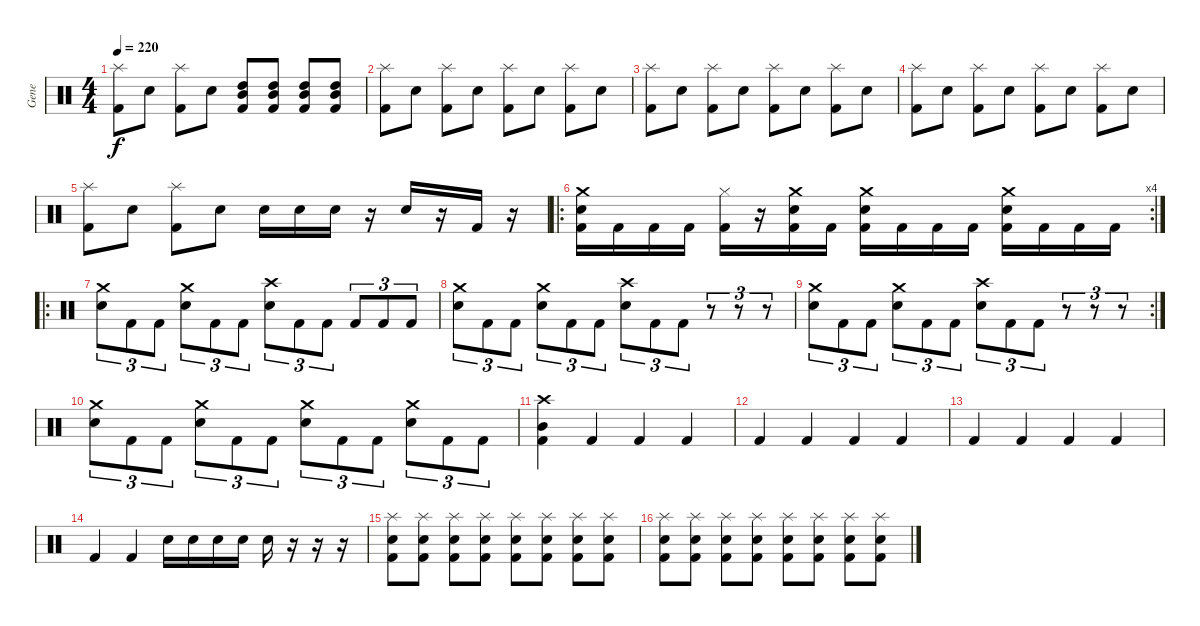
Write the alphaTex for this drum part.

\track ("Gene" "Gene") {instrument percussion}
\staff {score}
\articulation defaults
\ts (4 4)
\tempo 220
\clef neutral
\ks c
("Splash (hit)" "Kick (hit) 2").8{dy f} "Electric Snare (hit)".8 ("Splash (hit)" "Kick (hit) 2").8 "Electric Snare (hit)".8 ("High Tom (hit)" "Mid Tom (hit)" "Kick (hit) 2").8 ("High Tom (hit)" "Mid Tom (hit)" "Kick (hit) 2").8 ("High Tom (hit)" "Mid Tom (hit)" "Kick (hit) 2").8 ("High Tom (hit)" "Mid Tom (hit)" "Kick (hit) 2").8 |
("Splash (hit)" "Kick (hit) 2").8 "Electric Snare (hit)".8 ("Splash (hit)" "Kick (hit) 2").8 "Electric Snare (hit)".8 ("Splash (hit)" "Kick (hit) 2").8 "Electric Snare (hit)".8 ("Splash (hit)" "Kick (hit) 2").8 "Electric Snare (hit)".8 |
("Splash (hit)" "Kick (hit) 2").8 "Electric Snare (hit)".8 ("Splash (hit)" "Kick (hit) 2").8 "Electric Snare (hit)".8 ("Splash (hit)" "Kick (hit) 2").8 "Electric Snare (hit)".8 ("Splash (hit)" "Kick (hit) 2").8 "Electric Snare (hit)".8 |
("Splash (hit)" "Kick (hit) 2").8 "Electric Snare (hit)".8 ("Splash (hit)" "Kick (hit) 2").8 "Electric Snare (hit)".8 ("Splash (hit)" "Kick (hit) 2").8 "Electric Snare (hit)".8 ("Splash (hit)" "Kick (hit) 2").8 "Electric Snare (hit)".8 |
("Splash (hit)" "Kick (hit) 2").8 "Electric Snare (hit)".8 ("Splash (hit)" "Kick (hit) 2").8 "Electric Snare (hit)".8 "Electric Snare (hit)".16 "Electric Snare (hit)".16 "Electric Snare (hit)".16 r.16 "Electric Snare (hit)".16 r.16 "Kick (hit) 2".16 r.16 |
\ro
\rc 4
("Crash medium (hit)" "Electric Snare (hit)" "Kick (hit) 2").16 "Kick (hit) 2".16 "Kick (hit) 2".16 "Kick (hit) 2".16 ("Hi-Hat (closed)" "Kick (hit) 2").16 r.16 ("Crash medium (hit)" "Electric Snare (hit)" "Kick (hit) 2").16 "Kick (hit) 2".16 ("Crash medium (hit)" "Electric Snare (hit)" "Kick (hit) 2").16 "Kick (hit) 2".16 "Kick (hit) 2".16 "Kick (hit) 2".16 ("Crash medium (hit)" "Electric Snare (hit)" "Kick (hit) 2").16 "Kick (hit) 2".16 "Kick (hit) 2".16 "Kick (hit) 2".16 |
\ro
("Crash medium (hit)" "Electric Snare (hit)").8{tu (3 2)} "Kick (hit) 2".8{tu (3 2)} "Kick (hit) 2".8{tu (3 2)} ("Crash medium (hit)" "Electric Snare (hit)").8{tu (3 2)} "Kick (hit) 2".8{tu (3 2)} "Kick (hit) 2".8{tu (3 2)} ("Crash high (hit)" "Electric Snare (hit)").8{tu (3 2)} "Kick (hit) 2".8{tu (3 2)} "Kick (hit) 2".8{tu (3 2)} "Kick (hit) 2".8{tu (3 2)} "Kick (hit) 2".8{tu (3 2)} "Kick (hit) 2".8{tu (3 2)} |
("Crash medium (hit)" "Electric Snare (hit)").8{tu (3 2)} "Kick (hit) 2".8{tu (3 2)} "Kick (hit) 2".8{tu (3 2)} ("Crash medium (hit)" "Electric Snare (hit)").8{tu (3 2)} "Kick (hit) 2".8{tu (3 2)} "Kick (hit) 2".8{tu (3 2)} ("Crash high (hit)" "Electric Snare (hit)").8{tu (3 2)} "Kick (hit) 2".8{tu (3 2)} "Kick (hit) 2".8{tu (3 2)} r.8{tu (3 2)} r.8{tu (3 2)} r.8{tu (3 2)} |
\rc 2
("Crash medium (hit)" "Electric Snare (hit)").8{tu (3 2)} "Kick (hit) 2".8{tu (3 2)} "Kick (hit) 2".8{tu (3 2)} ("Crash medium (hit)" "Electric Snare (hit)").8{tu (3 2)} "Kick (hit) 2".8{tu (3 2)} "Kick (hit) 2".8{tu (3 2)} ("Crash high (hit)" "Electric Snare (hit)").8{tu (3 2)} "Kick (hit) 2".8{tu (3 2)} "Kick (hit) 2".8{tu (3 2)} r.8{tu (3 2)} r.8{tu (3 2)} r.8{tu (3 2)} |
("Crash medium (hit)" "Electric Snare (hit)").8{tu (3 2)} "Kick (hit) 2".8{tu (3 2)} "Kick (hit) 2".8{tu (3 2)} ("Crash medium (hit)" "Electric Snare (hit)").8{tu (3 2)} "Kick (hit) 2".8{tu (3 2)} "Kick (hit) 2".8{tu (3 2)} ("Crash medium (hit)" "Electric Snare (hit)").8{tu (3 2)} "Kick (hit) 2".8{tu (3 2)} "Kick (hit) 2".8{tu (3 2)} ("Crash medium (hit)" "Electric Snare (hit)").8{tu (3 2)} "Kick (hit) 2".8{tu (3 2)} "Kick (hit) 2".8{tu (3 2)} |
("Mid Tom (hit)" "Crash high (hit)" "Kick (hit) 2").4 "Kick (hit) 2".4 "Kick (hit) 2".4 "Kick (hit) 2".4 |
"Kick (hit) 2".4 "Kick (hit) 2".4 "Kick (hit) 2".4 "Kick (hit) 2".4 |
"Kick (hit) 2".4 "Kick (hit) 2".4 "Kick (hit) 2".4 "Kick (hit) 2".4 |
"Kick (hit) 2".4 "Kick (hit) 2".4 "Electric Snare (hit)".16 "Electric Snare (hit)".16 "Electric Snare (hit)".16 "Electric Snare (hit)".16 "Electric Snare (hit)".16 r.16 r.16 r.16 |
("Splash (hit)" "Electric Snare (hit)" "Kick (hit) 2").8 ("Splash (hit)" "Electric Snare (hit)" "Kick (hit) 2").8 ("Splash (hit)" "Electric Snare (hit)" "Kick (hit) 2").8 ("Splash (hit)" "Electric Snare (hit)" "Kick (hit) 2").8 ("Splash (hit)" "Electric Snare (hit)" "Kick (hit) 2").8 ("Splash (hit)" "Electric Snare (hit)" "Kick (hit) 2").8 ("Splash (hit)" "Electric Snare (hit)" "Kick (hit) 2").8 ("Splash (hit)" "Electric Snare (hit)" "Kick (hit) 2").8 |
("Splash (hit)" "Electric Snare (hit)" "Kick (hit) 2").8 ("Splash (hit)" "Electric Snare (hit)" "Kick (hit) 2").8 ("Splash (hit)" "Electric Snare (hit)" "Kick (hit) 2").8 ("Splash (hit)" "Electric Snare (hit)" "Kick (hit) 2").8 ("Splash (hit)" "Electric Snare (hit)" "Kick (hit) 2").8 ("Splash (hit)" "Electric Snare (hit)" "Kick (hit) 2").8 ("Splash (hit)" "Electric Snare (hit)" "Kick (hit) 2").8 ("Splash (hit)" "Electric Snare (hit)" "Kick (hit) 2").8
